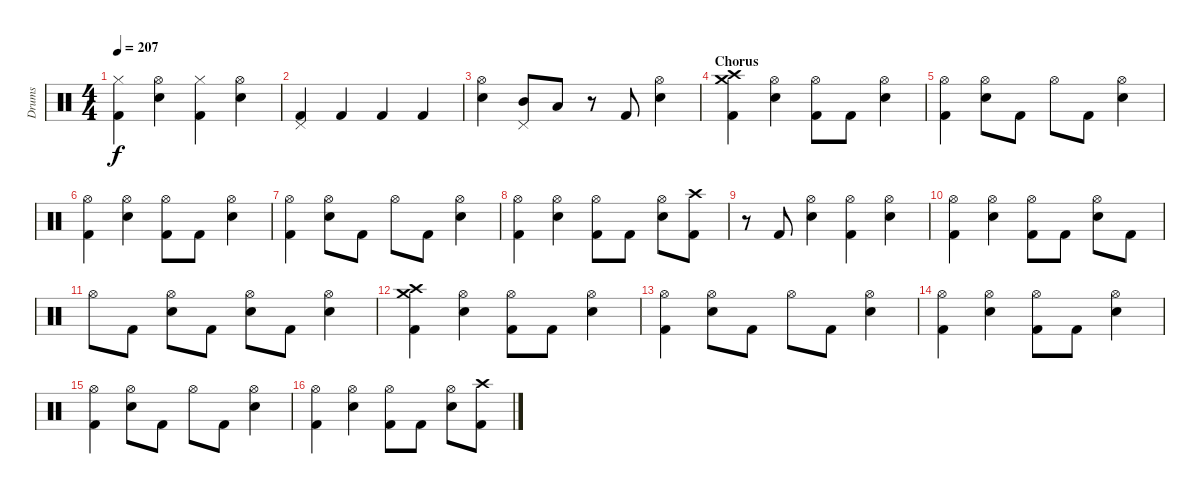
\track ("Drums" "Drums") {instrument percussion}
\staff {score}
\articulation defaults
\ts (4 4)
\tempo 207
\clef neutral
\ks c
("Hi-Hat (closed)" "Kick (hit) 2").4{dy f} ("Hi-Hat (open)" "Snare (hit) 2").4 ("Hi-Hat (closed)" "Kick (hit) 2").4 ("Hi-Hat (open)" "Snare (hit) 2").4 |
("Pedal Hi-Hat (hit)" "Kick (hit) 2").4 "Kick (hit) 2".4 "Kick (hit) 2".4 "Kick (hit) 2".4 |
("Hi-Hat (open)" "Snare (hit) 2").4 ("Pedal Hi-Hat (hit)" "Mid Tom (hit)").8 "Low Tom (hit)".8 r.8 "Kick (hit) 2".8 ("Hi-Hat (open)" "Snare (hit) 2").4 |
\section ("" "Chorus")
("Crash medium (hit)" "Crash high (hit)" "Kick (hit) 2").4 ("Hi-Hat (open)" "Snare (hit) 2").4 ("Hi-Hat (open)" "Kick (hit) 2").8 "Kick (hit) 2".8 ("Hi-Hat (open)" "Snare (hit) 2").4 |
("Hi-Hat (open)" "Kick (hit) 2").4 ("Hi-Hat (open)" "Snare (hit) 2").8 "Kick (hit) 2".8 "Hi-Hat (open)".8 "Kick (hit) 2".8 ("Hi-Hat (open)" "Snare (hit) 2").4 |
("Hi-Hat (open)" "Kick (hit) 2").4 ("Hi-Hat (open)" "Snare (hit) 2").4 ("Hi-Hat (open)" "Kick (hit) 2").8 "Kick (hit) 2".8 ("Hi-Hat (open)" "Snare (hit) 2").4 |
("Hi-Hat (open)" "Kick (hit) 2").4 ("Hi-Hat (open)" "Snare (hit) 2").8 "Kick (hit) 2".8 "Hi-Hat (open)".8 "Kick (hit) 2".8 ("Hi-Hat (open)" "Snare (hit) 2").4 |
("Hi-Hat (open)" "Kick (hit) 2").4 ("Hi-Hat (open)" "Snare (hit) 2").4 ("Hi-Hat (open)" "Kick (hit) 2").8 "Kick (hit) 2".8 ("Hi-Hat (open)" "Snare (hit) 2").8 ("Crash high (hit)" "Kick (hit) 2").8 |
r.8 "Kick (hit) 2".8 ("Hi-Hat (open)" "Snare (hit) 2").4 ("Hi-Hat (open)" "Kick (hit) 2").4 ("Hi-Hat (open)" "Snare (hit) 2").4 |
("Hi-Hat (open)" "Kick (hit) 2").4 ("Hi-Hat (open)" "Snare (hit) 2").4 ("Hi-Hat (open)" "Kick (hit) 2").8 "Kick (hit) 2".8 ("Hi-Hat (open)" "Snare (hit) 2").8 "Kick (hit) 2".8 |
"Hi-Hat (open)".8 "Kick (hit) 2".8 ("Hi-Hat (open)" "Snare (hit) 2").8 "Kick (hit) 2".8 ("Hi-Hat (open)" "Snare (hit) 2").8 "Kick (hit) 2".8 ("Hi-Hat (open)" "Snare (hit) 2").4 |
("Crash medium (hit)" "Crash high (hit)" "Kick (hit) 2").4 ("Hi-Hat (open)" "Snare (hit) 2").4 ("Hi-Hat (open)" "Kick (hit) 2").8 "Kick (hit) 2".8 ("Hi-Hat (open)" "Snare (hit) 2").4 |
("Hi-Hat (open)" "Kick (hit) 2").4 ("Hi-Hat (open)" "Snare (hit) 2").8 "Kick (hit) 2".8 "Hi-Hat (open)".8 "Kick (hit) 2".8 ("Hi-Hat (open)" "Snare (hit) 2").4 |
("Hi-Hat (open)" "Kick (hit) 2").4 ("Hi-Hat (open)" "Snare (hit) 2").4 ("Hi-Hat (open)" "Kick (hit) 2").8 "Kick (hit) 2".8 ("Hi-Hat (open)" "Snare (hit) 2").4 |
("Hi-Hat (open)" "Kick (hit) 2").4 ("Hi-Hat (open)" "Snare (hit) 2").8 "Kick (hit) 2".8 "Hi-Hat (open)".8 "Kick (hit) 2".8 ("Hi-Hat (open)" "Snare (hit) 2").4 |
("Hi-Hat (open)" "Kick (hit) 2").4 ("Hi-Hat (open)" "Snare (hit) 2").4 ("Hi-Hat (open)" "Kick (hit) 2").8 "Kick (hit) 2".8 ("Hi-Hat (open)" "Snare (hit) 2").8 ("Crash high (hit)" "Kick (hit) 2").8
